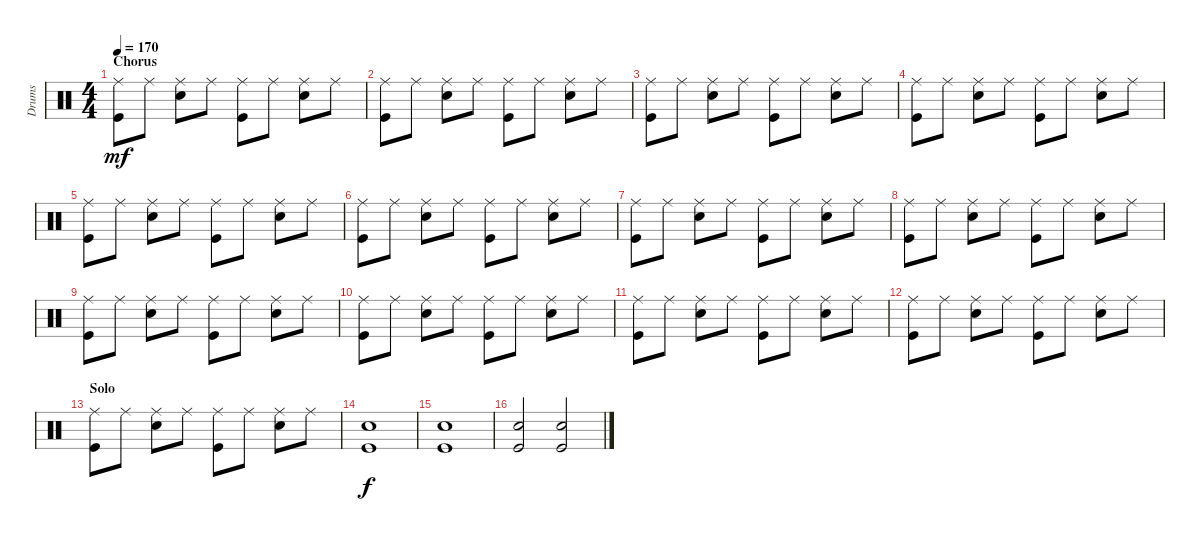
\track ("Drums" "Drums") {instrument percussion}
\staff {score}
\articulation defaults
\ts (4 4)
\section ("" "Chorus")
\tempo 170
\clef neutral
\ks c
("Ride (middle)" "Kick (hit)").8{dy mf} "Ride (middle)".8 ("Ride (middle)" "Snare (hit) 2").8 "Ride (middle)".8 ("Ride (middle)" "Kick (hit)").8 "Ride (middle)".8 ("Ride (middle)" "Snare (hit) 2").8 "Ride (middle)".8 |
("Ride (middle)" "Kick (hit)").8 "Ride (middle)".8 ("Ride (middle)" "Snare (hit) 2").8 "Ride (middle)".8 ("Ride (middle)" "Kick (hit)").8 "Ride (middle)".8 ("Ride (middle)" "Snare (hit) 2").8 "Ride (middle)".8 |
("Ride (middle)" "Kick (hit)").8 "Ride (middle)".8 ("Ride (middle)" "Snare (hit) 2").8 "Ride (middle)".8 ("Ride (middle)" "Kick (hit)").8 "Ride (middle)".8 ("Ride (middle)" "Snare (hit) 2").8 "Ride (middle)".8 |
("Ride (middle)" "Kick (hit)").8 "Ride (middle)".8 ("Ride (middle)" "Snare (hit) 2").8 "Ride (middle)".8 ("Ride (middle)" "Kick (hit)").8 "Ride (middle)".8 ("Ride (middle)" "Snare (hit) 2").8 "Ride (middle)".8 |
("Ride (middle)" "Kick (hit)").8 "Ride (middle)".8 ("Ride (middle)" "Snare (hit) 2").8 "Ride (middle)".8 ("Ride (middle)" "Kick (hit)").8 "Ride (middle)".8 ("Ride (middle)" "Snare (hit) 2").8 "Ride (middle)".8 |
("Ride (middle)" "Kick (hit)").8 "Ride (middle)".8 ("Ride (middle)" "Snare (hit) 2").8 "Ride (middle)".8 ("Ride (middle)" "Kick (hit)").8 "Ride (middle)".8 ("Ride (middle)" "Snare (hit) 2").8 "Ride (middle)".8 |
("Ride (middle)" "Kick (hit)").8 "Ride (middle)".8 ("Ride (middle)" "Snare (hit) 2").8 "Ride (middle)".8 ("Ride (middle)" "Kick (hit)").8 "Ride (middle)".8 ("Ride (middle)" "Snare (hit) 2").8 "Ride (middle)".8 |
("Ride (middle)" "Kick (hit)").8 "Ride (middle)".8 ("Ride (middle)" "Snare (hit) 2").8 "Ride (middle)".8 ("Ride (middle)" "Kick (hit)").8 "Ride (middle)".8 ("Ride (middle)" "Snare (hit) 2").8 "Ride (middle)".8 |
("Ride (middle)" "Kick (hit)").8 "Ride (middle)".8 ("Ride (middle)" "Snare (hit) 2").8 "Ride (middle)".8 ("Ride (middle)" "Kick (hit)").8 "Ride (middle)".8 ("Ride (middle)" "Snare (hit) 2").8 "Ride (middle)".8 |
("Ride (middle)" "Kick (hit)").8 "Ride (middle)".8 ("Ride (middle)" "Snare (hit) 2").8 "Ride (middle)".8 ("Ride (middle)" "Kick (hit)").8 "Ride (middle)".8 ("Ride (middle)" "Snare (hit) 2").8 "Ride (middle)".8 |
("Ride (middle)" "Kick (hit)").8 "Ride (middle)".8 ("Ride (middle)" "Snare (hit) 2").8 "Ride (middle)".8 ("Ride (middle)" "Kick (hit)").8 "Ride (middle)".8 ("Ride (middle)" "Snare (hit) 2").8 "Ride (middle)".8 |
("Ride (middle)" "Kick (hit)").8 "Ride (middle)".8 ("Ride (middle)" "Snare (hit) 2").8 "Ride (middle)".8 ("Ride (middle)" "Kick (hit)").8 "Ride (middle)".8 ("Ride (middle)" "Snare (hit) 2").8 "Ride (middle)".8 |
\section ("" "Solo")
("Ride (middle)" "Kick (hit)").8 "Ride (middle)".8 ("Ride (middle)" "Snare (hit) 2").8 "Ride (middle)".8 ("Ride (middle)" "Kick (hit)").8 "Ride (middle)".8 ("Ride (middle)" "Snare (hit) 2").8 "Ride (middle)".8 |
("Snare (hit) 2" "Kick (hit)").1{dy f} |
("Snare (hit) 2" "Kick (hit)").1 |
("Snare (hit) 2" "Kick (hit)").2 ("Snare (hit) 2" "Kick (hit)").2
